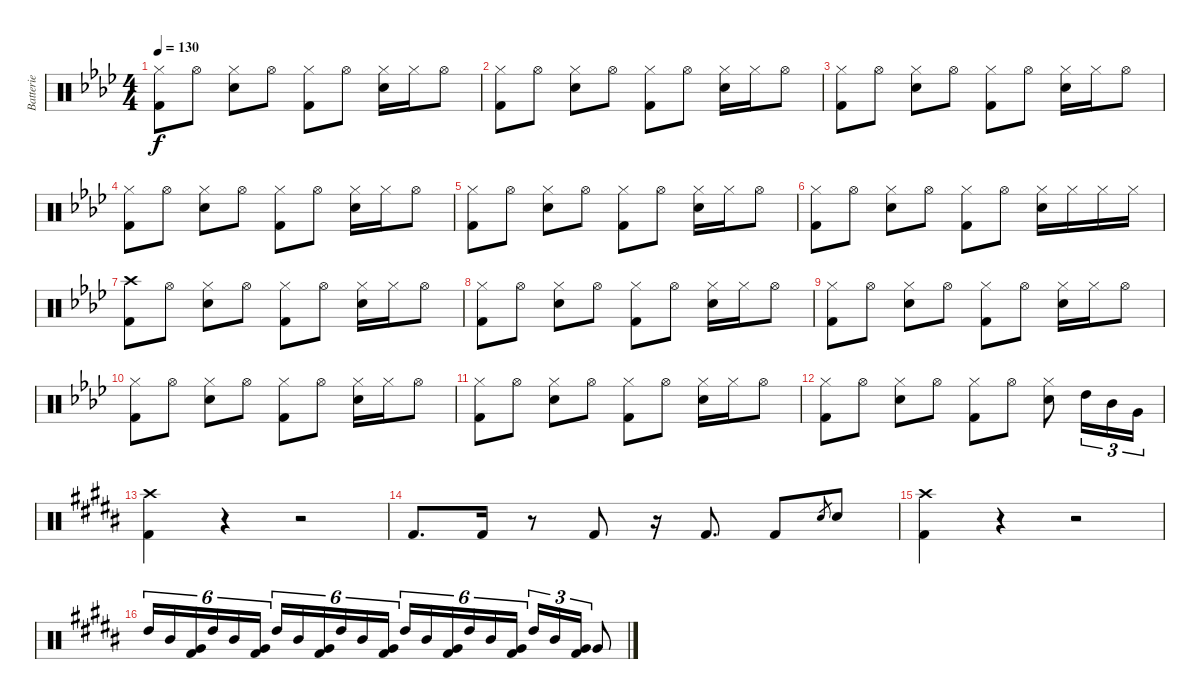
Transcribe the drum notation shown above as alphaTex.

\track ("Batterie" "Batterie") {instrument percussion}
\staff {score}
\articulation defaults
\ts (4 4)
\tempo 130
\clef neutral
\ks ab
("Hi-Hat (closed)" "Kick (hit) 2").8{dy f} "Hi-Hat (open)".8 ("Hi-Hat (closed)" "Snare (hit) 2").8 "Hi-Hat (open)".8 ("Hi-Hat (closed)" "Kick (hit) 2").8 "Hi-Hat (open)".8 ("Hi-Hat (closed)" "Snare (hit) 2").16 "Hi-Hat (closed)".16 "Hi-Hat (open)".8 |
("Hi-Hat (closed)" "Kick (hit) 2").8 "Hi-Hat (open)".8 ("Hi-Hat (closed)" "Snare (hit) 2").8 "Hi-Hat (open)".8 ("Hi-Hat (closed)" "Kick (hit) 2").8 "Hi-Hat (open)".8 ("Hi-Hat (closed)" "Snare (hit) 2").16 "Hi-Hat (closed)".16 "Hi-Hat (open)".8 |
("Hi-Hat (closed)" "Kick (hit) 2").8 "Hi-Hat (open)".8 ("Hi-Hat (closed)" "Snare (hit) 2").8 "Hi-Hat (open)".8 ("Hi-Hat (closed)" "Kick (hit) 2").8 "Hi-Hat (open)".8 ("Hi-Hat (closed)" "Snare (hit) 2").16 "Hi-Hat (closed)".16 "Hi-Hat (open)".8 |
("Hi-Hat (closed)" "Kick (hit) 2").8 "Hi-Hat (open)".8 ("Hi-Hat (closed)" "Snare (hit) 2").8 "Hi-Hat (open)".8 ("Hi-Hat (closed)" "Kick (hit) 2").8 "Hi-Hat (open)".8 ("Hi-Hat (closed)" "Snare (hit) 2").16 "Hi-Hat (closed)".16 "Hi-Hat (open)".8 |
("Hi-Hat (closed)" "Kick (hit) 2").8 "Hi-Hat (open)".8 ("Hi-Hat (closed)" "Snare (hit) 2").8 "Hi-Hat (open)".8 ("Hi-Hat (closed)" "Kick (hit) 2").8 "Hi-Hat (open)".8 ("Hi-Hat (closed)" "Snare (hit) 2").16 "Hi-Hat (closed)".16 "Hi-Hat (open)".8 |
("Hi-Hat (closed)" "Kick (hit) 2").8 "Hi-Hat (open)".8 ("Hi-Hat (closed)" "Snare (hit) 2").8 "Hi-Hat (open)".8 ("Hi-Hat (closed)" "Kick (hit) 2").8 "Hi-Hat (open)".8 ("Hi-Hat (closed)" "Snare (hit) 2").16 "Hi-Hat (closed)".16 "Hi-Hat (closed)".16 "Hi-Hat (closed)".16 |
("Crash high (hit)" "Kick (hit) 2").8 "Hi-Hat (open)".8 ("Hi-Hat (closed)" "Snare (hit) 2").8 "Hi-Hat (open)".8 ("Hi-Hat (closed)" "Kick (hit) 2").8 "Hi-Hat (open)".8 ("Hi-Hat (closed)" "Snare (hit) 2").16 "Hi-Hat (closed)".16 "Hi-Hat (open)".8 |
("Hi-Hat (closed)" "Kick (hit) 2").8 "Hi-Hat (open)".8 ("Hi-Hat (closed)" "Snare (hit) 2").8 "Hi-Hat (open)".8 ("Hi-Hat (closed)" "Kick (hit) 2").8 "Hi-Hat (open)".8 ("Hi-Hat (closed)" "Snare (hit) 2").16 "Hi-Hat (closed)".16 "Hi-Hat (open)".8 |
("Hi-Hat (closed)" "Kick (hit) 2").8 "Hi-Hat (open)".8 ("Hi-Hat (closed)" "Snare (hit) 2").8 "Hi-Hat (open)".8 ("Hi-Hat (closed)" "Kick (hit) 2").8 "Hi-Hat (open)".8 ("Hi-Hat (closed)" "Snare (hit) 2").16 "Hi-Hat (closed)".16 "Hi-Hat (open)".8 |
("Hi-Hat (closed)" "Kick (hit) 2").8 "Hi-Hat (open)".8 ("Hi-Hat (closed)" "Snare (hit) 2").8 "Hi-Hat (open)".8 ("Hi-Hat (closed)" "Kick (hit) 2").8 "Hi-Hat (open)".8 ("Hi-Hat (closed)" "Snare (hit) 2").16 "Hi-Hat (closed)".16 "Hi-Hat (open)".8 |
("Hi-Hat (closed)" "Kick (hit) 2").8 "Hi-Hat (open)".8 ("Hi-Hat (closed)" "Snare (hit) 2").8 "Hi-Hat (open)".8 ("Hi-Hat (closed)" "Kick (hit) 2").8 "Hi-Hat (open)".8 ("Hi-Hat (closed)" "Snare (hit) 2").16 "Hi-Hat (closed)".16 "Hi-Hat (open)".8 |
("Hi-Hat (closed)" "Kick (hit) 2").8 "Hi-Hat (open)".8 ("Hi-Hat (closed)" "Snare (hit) 2").8 "Hi-Hat (open)".8 ("Hi-Hat (closed)" "Kick (hit) 2").8 "Hi-Hat (open)".8 ("Hi-Hat (closed)" "Snare (hit) 2").8 "High Tom (hit)".16{tu (3 2)} "Mid Tom (hit)".16{tu (3 2)} "Very Low Tom (hit)".16{tu (3 2)} |
\ks b
("Crash high (hit)" "Kick (hit) 2").4 r.4 r.2 |
"Kick (hit) 2".8{d} "Kick (hit) 2".16 r.8 "Kick (hit) 2".8 r.16 "Kick (hit) 2".8{d} "Kick (hit) 2".8 "Snare (hit) 2".8{gr} "Snare (hit) 2".8 |
("Crash high (hit)" "Kick (hit) 2").4 r.4 r.2 |
"High Tom (hit)".16{tu (6 4)} "Mid Tom (hit)".16{tu (6 4)} ("Very Low Tom (hit)" "Kick (hit) 2").16{tu (6 4)} "High Tom (hit)".16{tu (6 4)} "Mid Tom (hit)".16{tu (6 4)} ("Very Low Tom (hit)" "Kick (hit) 2").16{tu (6 4)} "High Tom (hit)".16{tu (6 4)} "Mid Tom (hit)".16{tu (6 4)} ("Very Low Tom (hit)" "Kick (hit) 2").16{tu (6 4)} "High Tom (hit)".16{tu (6 4)} "Mid Tom (hit)".16{tu (6 4)} ("Very Low Tom (hit)" "Kick (hit) 2").16{tu (6 4)} "High Tom (hit)".16{tu (6 4)} "Mid Tom (hit)".16{tu (6 4)} ("Very Low Tom (hit)" "Kick (hit) 2").16{tu (6 4)} "High Tom (hit)".16{tu (6 4)} "Mid Tom (hit)".16{tu (6 4)} ("Very Low Tom (hit)" "Kick (hit) 2").16{tu (6 4)} "High Tom (hit)".16{tu (3 2)} "Mid Tom (hit)".16{tu (3 2)} ("Very Low Tom (hit)" "Kick (hit) 2").16{tu (3 2)} "Very Low Tom (hit)".8
